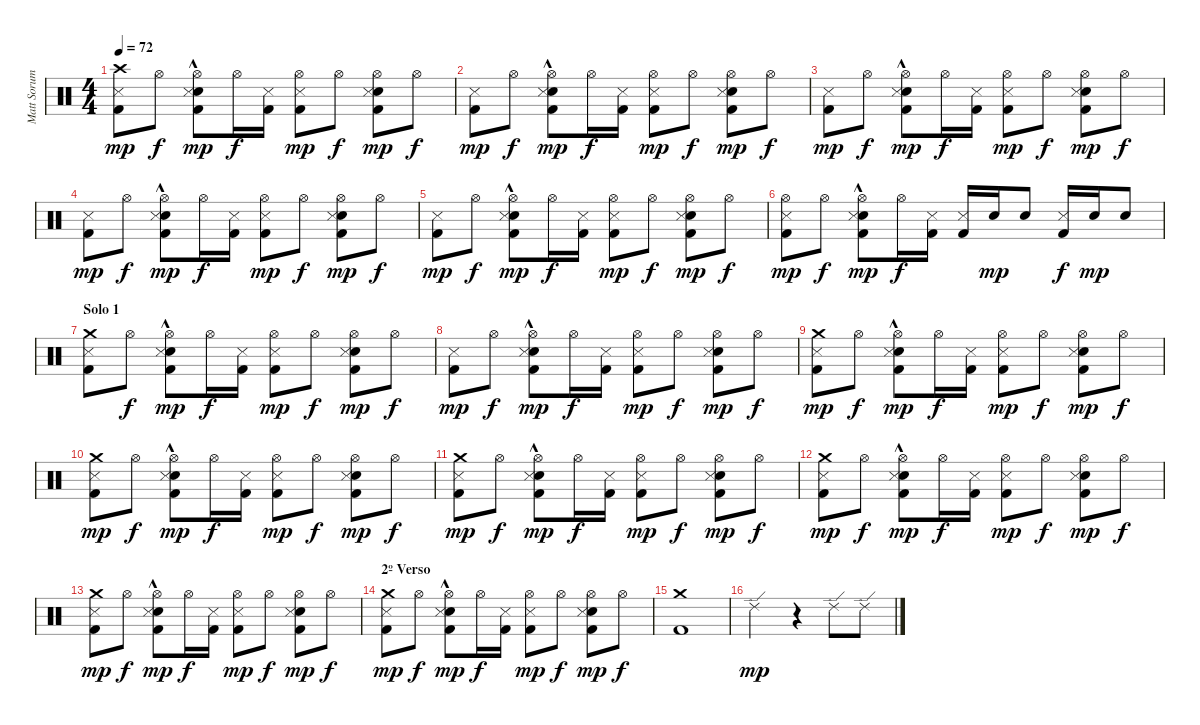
\track ("Matt Sorum" "Matt Sorum") {instrument percussion}
\staff {score}
\articulation defaults
\ts (4 4)
\tempo 72
\clef neutral
\ks c
("Metronome (hit)" "Kick (hit) 2" "Crash high (hit)").8{dy mp} "Hi-Hat (open)".8{dy f} ("Electric Snare (hit)" "Hi-Hat (open)" "Metronome (hit)"{hac} "Kick (hit) 2").8{dy mp} "Hi-Hat (open)".16{dy f} ("Metronome (hit)" "Kick (hit) 2").16 ("Hi-Hat (open)" "Metronome (hit)" "Kick (hit) 2").8{dy mp} "Hi-Hat (open)".8{dy f} ("Electric Snare (hit)" "Hi-Hat (open)" "Metronome (hit)" "Kick (hit) 2").8{dy mp} "Hi-Hat (open)".8{dy f} |
("Metronome (hit)" "Kick (hit) 2").8{dy mp} "Hi-Hat (open)".8{dy f} ("Electric Snare (hit)" "Hi-Hat (open)" "Metronome (hit)"{hac} "Kick (hit) 2").8{dy mp} "Hi-Hat (open)".16{dy f} ("Metronome (hit)" "Kick (hit) 2").16 ("Hi-Hat (open)" "Metronome (hit)" "Kick (hit) 2").8{dy mp} "Hi-Hat (open)".8{dy f} ("Electric Snare (hit)" "Hi-Hat (open)" "Metronome (hit)" "Kick (hit) 2").8{dy mp} "Hi-Hat (open)".8{dy f} |
("Metronome (hit)" "Kick (hit) 2").8{dy mp} "Hi-Hat (open)".8{dy f} ("Electric Snare (hit)" "Hi-Hat (open)" "Metronome (hit)"{hac} "Kick (hit) 2").8{dy mp} "Hi-Hat (open)".16{dy f} ("Metronome (hit)" "Kick (hit) 2").16 ("Hi-Hat (open)" "Metronome (hit)" "Kick (hit) 2").8{dy mp} "Hi-Hat (open)".8{dy f} ("Electric Snare (hit)" "Hi-Hat (open)" "Metronome (hit)" "Kick (hit) 2").8{dy mp} "Hi-Hat (open)".8{dy f} |
("Metronome (hit)" "Kick (hit) 2").8{dy mp} "Hi-Hat (open)".8{dy f} ("Electric Snare (hit)" "Hi-Hat (open)" "Metronome (hit)"{hac} "Kick (hit) 2").8{dy mp} "Hi-Hat (open)".16{dy f} ("Metronome (hit)" "Kick (hit) 2").16 ("Hi-Hat (open)" "Metronome (hit)" "Kick (hit) 2").8{dy mp} "Hi-Hat (open)".8{dy f} ("Electric Snare (hit)" "Hi-Hat (open)" "Metronome (hit)" "Kick (hit) 2").8{dy mp} "Hi-Hat (open)".8{dy f} |
("Metronome (hit)" "Kick (hit) 2").8{dy mp} "Hi-Hat (open)".8{dy f} ("Electric Snare (hit)" "Hi-Hat (open)" "Metronome (hit)"{hac} "Kick (hit) 2").8{dy mp} "Hi-Hat (open)".16{dy f} ("Metronome (hit)" "Kick (hit) 2").16 ("Hi-Hat (open)" "Metronome (hit)" "Kick (hit) 2").8{dy mp} "Hi-Hat (open)".8{dy f} ("Electric Snare (hit)" "Hi-Hat (open)" "Metronome (hit)" "Kick (hit) 2").8{dy mp} "Hi-Hat (open)".8{dy f} |
("Hi-Hat (open)" "Metronome (hit)" "Kick (hit) 2").8{dy mp} "Hi-Hat (open)".8{dy f} ("Snare (hit) 2" "Hi-Hat (open)" "Metronome (hit)"{hac} "Kick (hit) 2"{hac}).8{dy mp} "Hi-Hat (open)".16{dy f} ("Metronome (hit)" "Kick (hit) 2").16 ("Metronome (hit)" "Kick (hit) 2").16 "Snare (hit) 2".16{dy mp} "Snare (hit) 2".8 ("Metronome (hit)" "Kick (hit) 2").16{dy f} "Snare (hit) 2".16{dy mp} "Snare (hit) 2".8 |
\section ("" "Solo 1")
("Metronome (hit)" "Kick (hit) 2" "Crash medium (hit)").8 "Hi-Hat (open)".8{dy f} ("Electric Snare (hit)" "Hi-Hat (open)" "Metronome (hit)"{hac} "Kick (hit) 2").8{dy mp} "Hi-Hat (open)".16{dy f} ("Metronome (hit)" "Kick (hit) 2").16 ("Hi-Hat (open)" "Metronome (hit)" "Kick (hit) 2").8{dy mp} "Hi-Hat (open)".8{dy f} ("Electric Snare (hit)" "Hi-Hat (open)" "Metronome (hit)" "Kick (hit) 2").8{dy mp} "Hi-Hat (open)".8{dy f} |
("Metronome (hit)" "Kick (hit) 2").8{dy mp} "Hi-Hat (open)".8{dy f} ("Electric Snare (hit)" "Hi-Hat (open)" "Metronome (hit)"{hac} "Kick (hit) 2").8{dy mp} "Hi-Hat (open)".16{dy f} ("Metronome (hit)" "Kick (hit) 2").16 ("Hi-Hat (open)" "Metronome (hit)" "Kick (hit) 2").8{dy mp} "Hi-Hat (open)".8{dy f} ("Electric Snare (hit)" "Hi-Hat (open)" "Metronome (hit)" "Kick (hit) 2").8{dy mp} "Hi-Hat (open)".8{dy f} |
("Metronome (hit)" "Kick (hit) 2" "Crash medium (hit)").8{dy mp} "Hi-Hat (open)".8{dy f} ("Electric Snare (hit)" "Hi-Hat (open)" "Metronome (hit)"{hac} "Kick (hit) 2").8{dy mp} "Hi-Hat (open)".16{dy f} ("Metronome (hit)" "Kick (hit) 2").16 ("Hi-Hat (open)" "Metronome (hit)" "Kick (hit) 2").8{dy mp} "Hi-Hat (open)".8{dy f} ("Electric Snare (hit)" "Hi-Hat (open)" "Metronome (hit)" "Kick (hit) 2").8{dy mp} "Hi-Hat (open)".8{dy f} |
("Metronome (hit)" "Kick (hit) 2" "Crash medium (hit)").8{dy mp} "Hi-Hat (open)".8{dy f} ("Electric Snare (hit)" "Hi-Hat (open)" "Metronome (hit)"{hac} "Kick (hit) 2").8{dy mp} "Hi-Hat (open)".16{dy f} ("Metronome (hit)" "Kick (hit) 2").16 ("Hi-Hat (open)" "Metronome (hit)" "Kick (hit) 2").8{dy mp} "Hi-Hat (open)".8{dy f} ("Electric Snare (hit)" "Hi-Hat (open)" "Metronome (hit)" "Kick (hit) 2").8{dy mp} "Hi-Hat (open)".8{dy f} |
("Metronome (hit)" "Kick (hit) 2" "Crash medium (hit)").8{dy mp} "Hi-Hat (open)".8{dy f} ("Electric Snare (hit)" "Hi-Hat (open)" "Metronome (hit)"{hac} "Kick (hit) 2").8{dy mp} "Hi-Hat (open)".16{dy f} ("Metronome (hit)" "Kick (hit) 2").16 ("Hi-Hat (open)" "Metronome (hit)" "Kick (hit) 2").8{dy mp} "Hi-Hat (open)".8{dy f} ("Electric Snare (hit)" "Hi-Hat (open)" "Metronome (hit)" "Kick (hit) 2").8{dy mp} "Hi-Hat (open)".8{dy f} |
("Metronome (hit)" "Kick (hit) 2" "Crash medium (hit)").8{dy mp} "Hi-Hat (open)".8{dy f} ("Electric Snare (hit)" "Hi-Hat (open)" "Metronome (hit)"{hac} "Kick (hit) 2").8{dy mp} "Hi-Hat (open)".16{dy f} ("Metronome (hit)" "Kick (hit) 2").16 ("Hi-Hat (open)" "Metronome (hit)" "Kick (hit) 2").8{dy mp} "Hi-Hat (open)".8{dy f} ("Electric Snare (hit)" "Hi-Hat (open)" "Metronome (hit)" "Kick (hit) 2").8{dy mp} "Hi-Hat (open)".8{dy f} |
("Metronome (hit)" "Kick (hit) 2" "Crash medium (hit)").8{dy mp} "Hi-Hat (open)".8{dy f} ("Electric Snare (hit)" "Hi-Hat (open)" "Metronome (hit)"{hac} "Kick (hit) 2").8{dy mp} "Hi-Hat (open)".16{dy f} ("Metronome (hit)" "Kick (hit) 2").16 ("Hi-Hat (open)" "Metronome (hit)" "Kick (hit) 2").8{dy mp} "Hi-Hat (open)".8{dy f} ("Electric Snare (hit)" "Hi-Hat (open)" "Metronome (hit)" "Kick (hit) 2").8{dy mp} "Hi-Hat (open)".8{dy f} |
\section ("" "2º Verso")
("Metronome (hit)" "Kick (hit) 2" "Crash medium (hit)").8{dy mp} "Hi-Hat (open)".8{dy f} ("Snare (hit) 2" "Hi-Hat (open)" "Metronome (hit)"{hac} "Kick (hit) 2").8{dy mp} "Hi-Hat (open)".16{dy f} ("Metronome (hit)" "Kick (hit) 2").16 ("Hi-Hat (open)" "Metronome (hit)" "Kick (hit) 2").8{dy mp} "Hi-Hat (open)".8{dy f} ("Snare (hit) 2" "Hi-Hat (open)" "Metronome (hit)" "Kick (hit) 2").8{dy mp} "Hi-Hat (open)".8{dy f} |
("Kick (hit) 2" "Crash medium (hit)").1 |
"Ride (edge) 2".2{dy mp} r.4 "Ride (edge) 2".8 "Ride (edge) 2".8
